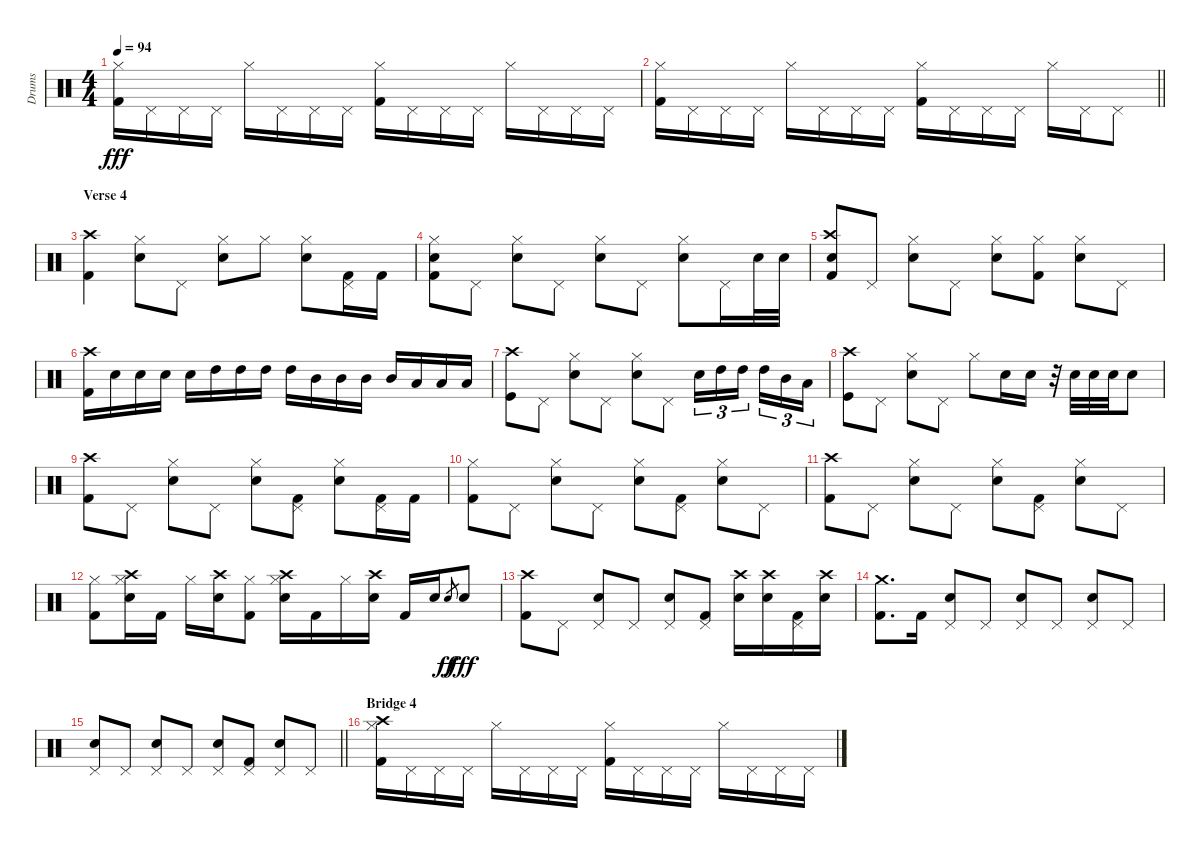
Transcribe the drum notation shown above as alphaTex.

\track ("Drums" "Drums") {instrument percussion}
\staff {score}
\articulation defaults
\ts (4 4)
\tempo 94
\clef neutral
\ks c
("Hi-Hat (closed)" "Kick (hit) 2").16{dy fff} "Pedal Hi-Hat (hit)".16 "Pedal Hi-Hat (hit)".16 "Pedal Hi-Hat (hit)".16 "Hi-Hat (closed)".16 "Pedal Hi-Hat (hit)".16 "Pedal Hi-Hat (hit)".16 "Pedal Hi-Hat (hit)".16 ("Hi-Hat (closed)" "Kick (hit) 2").16 "Pedal Hi-Hat (hit)".16 "Pedal Hi-Hat (hit)".16 "Pedal Hi-Hat (hit)".16 "Hi-Hat (closed)".16 "Pedal Hi-Hat (hit)".16 "Pedal Hi-Hat (hit)".16 "Pedal Hi-Hat (hit)".16 |
\barLineRight lightlight
("Hi-Hat (closed)" "Kick (hit) 2").16 "Pedal Hi-Hat (hit)".16 "Pedal Hi-Hat (hit)".16 "Pedal Hi-Hat (hit)".16 "Hi-Hat (closed)".16 "Pedal Hi-Hat (hit)".16 "Pedal Hi-Hat (hit)".16 "Pedal Hi-Hat (hit)".16 ("Hi-Hat (closed)" "Kick (hit) 2").16 "Pedal Hi-Hat (hit)".16 "Pedal Hi-Hat (hit)".16 "Pedal Hi-Hat (hit)".16 "Hi-Hat (closed)".16 "Pedal Hi-Hat (hit)".16 "Pedal Hi-Hat (hit)".8 |
\section ("" "Verse 4")
("Crash high (hit)" "Kick (hit) 2").4 ("Hi-Hat (closed)" "Electric Snare (hit)").8 "Pedal Hi-Hat (hit)".8 ("Hi-Hat (closed)" "Electric Snare (hit)").8 "Hi-Hat (closed)".8 ("Hi-Hat (closed)" "Electric Snare (hit)").8 ("Pedal Hi-Hat (hit)" "Kick (hit) 2").16 "Kick (hit) 2".16 |
("Hi-Hat (closed)" "Electric Snare (hit)" "Kick (hit) 2").8 "Pedal Hi-Hat (hit)".8 ("Hi-Hat (closed)" "Electric Snare (hit)").8 "Pedal Hi-Hat (hit)".8 ("Hi-Hat (closed)" "Electric Snare (hit)").8 "Pedal Hi-Hat (hit)".8 ("Hi-Hat (closed)" "Electric Snare (hit)").8 "Pedal Hi-Hat (hit)".16 "Electric Snare (hit)".32 "Electric Snare (hit)".32 |
("Crash high (hit)" "Electric Snare (hit)" "Kick (hit) 2").8 "Pedal Hi-Hat (hit)".8 ("Hi-Hat (closed)" "Electric Snare (hit)").8 "Pedal Hi-Hat (hit)".8 ("Hi-Hat (closed)" "Electric Snare (hit)").8 ("Hi-Hat (closed)" "Kick (hit) 2").8 ("Hi-Hat (closed)" "Electric Snare (hit)").8 "Pedal Hi-Hat (hit)".8 |
("Crash high (hit)" "Kick (hit) 2").16 "Electric Snare (hit)".16 "Electric Snare (hit)".16 "Electric Snare (hit)".16 "Electric Snare (hit)".16 "High Tom (hit)".16 "High Tom (hit)".16 "High Tom (hit)".16 "High Tom (hit)".16 "Mid Tom (hit)".16 "Mid Tom (hit)".16 "Mid Tom (hit)".16 "Mid Tom (hit)".16 "Low Tom (hit)".16 "Low Tom (hit)".16 "Low Tom (hit)".16 |
("Crash high (hit)" "Kick (hit)").8 "Pedal Hi-Hat (hit)".8 ("Hi-Hat (closed)" "Electric Snare (hit)").8 "Pedal Hi-Hat (hit)".8 ("Hi-Hat (closed)" "Electric Snare (hit)").8 "Pedal Hi-Hat (hit)".8 "Electric Snare (hit)".16{tu (3 2)} "High Tom (hit)".16{tu (3 2)} "High Tom (hit)".16{tu (3 2) beam splitsecondary} "High Tom (hit)".16{tu (3 2)} "Mid Tom (hit)".16{tu (3 2)} "Low Tom (hit)".16{tu (3 2)} |
("Crash high (hit)" "Kick (hit)").8 "Pedal Hi-Hat (hit)".8 ("Hi-Hat (closed)" "Electric Snare (hit)").8 "Pedal Hi-Hat (hit)".8 "Hi-Hat (closed)".8 "Electric Snare (hit)".16 "Electric Snare (hit)".16 r.32 "Electric Snare (hit)".32 "Electric Snare (hit)".32 "Electric Snare (hit)".32 "Electric Snare (hit)".8 |
("Crash high (hit)" "Kick (hit) 2").8 "Pedal Hi-Hat (hit)".8 ("Hi-Hat (closed)" "Electric Snare (hit)").8 "Pedal Hi-Hat (hit)".8 ("Hi-Hat (closed)" "Electric Snare (hit)").8 ("Pedal Hi-Hat (hit)" "Kick (hit) 2").8 ("Hi-Hat (closed)" "Electric Snare (hit)").8 ("Pedal Hi-Hat (hit)" "Kick (hit) 2").16 "Kick (hit) 2".16 |
("Hi-Hat (closed)" "Kick (hit) 2").8 "Pedal Hi-Hat (hit)".8 ("Hi-Hat (closed)" "Electric Snare (hit)").8 "Pedal Hi-Hat (hit)".8 ("Hi-Hat (closed)" "Electric Snare (hit)").8 ("Pedal Hi-Hat (hit)" "Kick (hit) 2").8 ("Hi-Hat (closed)" "Electric Snare (hit)").8 "Pedal Hi-Hat (hit)".8 |
("Crash high (hit)" "Kick (hit) 2").8 "Pedal Hi-Hat (hit)".8 ("Hi-Hat (closed)" "Electric Snare (hit)").8 "Pedal Hi-Hat (hit)".8 ("Hi-Hat (closed)" "Electric Snare (hit)").8 ("Pedal Hi-Hat (hit)" "Kick (hit) 2").8 ("Hi-Hat (closed)" "Electric Snare (hit)").8 "Pedal Hi-Hat (hit)".8 |
("Hi-Hat (closed)" "Kick (hit) 2").8 ("Crash high (hit)" "Hi-Hat (closed)" "Electric Snare (hit)").16 "Kick (hit) 2".16 "Hi-Hat (closed)".16 ("Crash high (hit)" "Electric Snare (hit)").16 ("Hi-Hat (closed)" "Kick (hit) 2").8 ("Crash high (hit)" "Hi-Hat (closed)" "Electric Snare (hit)").16 "Kick (hit) 2".16 "Hi-Hat (closed)".16 ("Crash high (hit)" "Electric Snare (hit)").16 "Kick (hit) 2".16 "Electric Snare (hit)".16 "Electric Snare (hit)".8{gr dy ff} "Electric Snare (hit)".8{dy fff} |
("Crash high (hit)" "Kick (hit) 2").8 "Pedal Hi-Hat (hit)".8 ("Pedal Hi-Hat (hit)" "Electric Snare (hit)").8 "Pedal Hi-Hat (hit)".8 ("Pedal Hi-Hat (hit)" "Electric Snare (hit)").8 ("Pedal Hi-Hat (hit)" "Kick (hit) 2").8 ("Crash high (hit)" "Electric Snare (hit)").16 ("Crash high (hit)" "Electric Snare (hit)").16 ("Pedal Hi-Hat (hit)" "Kick (hit) 2").16 ("Crash high (hit)" "Electric Snare (hit)").16 |
("Crash medium (hit)" "Kick (hit) 2").8{d} "Kick (hit) 2".16 ("Pedal Hi-Hat (hit)" "Electric Snare (hit)").8 "Pedal Hi-Hat (hit)".8 ("Pedal Hi-Hat (hit)" "Electric Snare (hit)").8 "Pedal Hi-Hat (hit)".8 ("Pedal Hi-Hat (hit)" "Electric Snare (hit)").8 "Pedal Hi-Hat (hit)".8 |
\barLineRight lightlight
("Pedal Hi-Hat (hit)" "Electric Snare (hit)").8 "Pedal Hi-Hat (hit)".8 ("Pedal Hi-Hat (hit)" "Electric Snare (hit)").8 "Pedal Hi-Hat (hit)".8 ("Pedal Hi-Hat (hit)" "Electric Snare (hit)").8 ("Pedal Hi-Hat (hit)" "Kick (hit) 2").8 ("Pedal Hi-Hat (hit)" "Electric Snare (hit)").8 "Pedal Hi-Hat (hit)".8 |
\section ("" "Bridge 4")
("Crash high (hit)" "Hi-Hat (closed)" "Kick (hit) 2").16 "Pedal Hi-Hat (hit)".16 "Pedal Hi-Hat (hit)".16 "Pedal Hi-Hat (hit)".16 "Hi-Hat (closed)".16 "Pedal Hi-Hat (hit)".16 "Pedal Hi-Hat (hit)".16 "Pedal Hi-Hat (hit)".16 ("Hi-Hat (closed)" "Kick (hit) 2").16 "Pedal Hi-Hat (hit)".16 "Pedal Hi-Hat (hit)".16 "Pedal Hi-Hat (hit)".16 "Hi-Hat (closed)".16 "Pedal Hi-Hat (hit)".16 "Pedal Hi-Hat (hit)".16 "Pedal Hi-Hat (hit)".16
